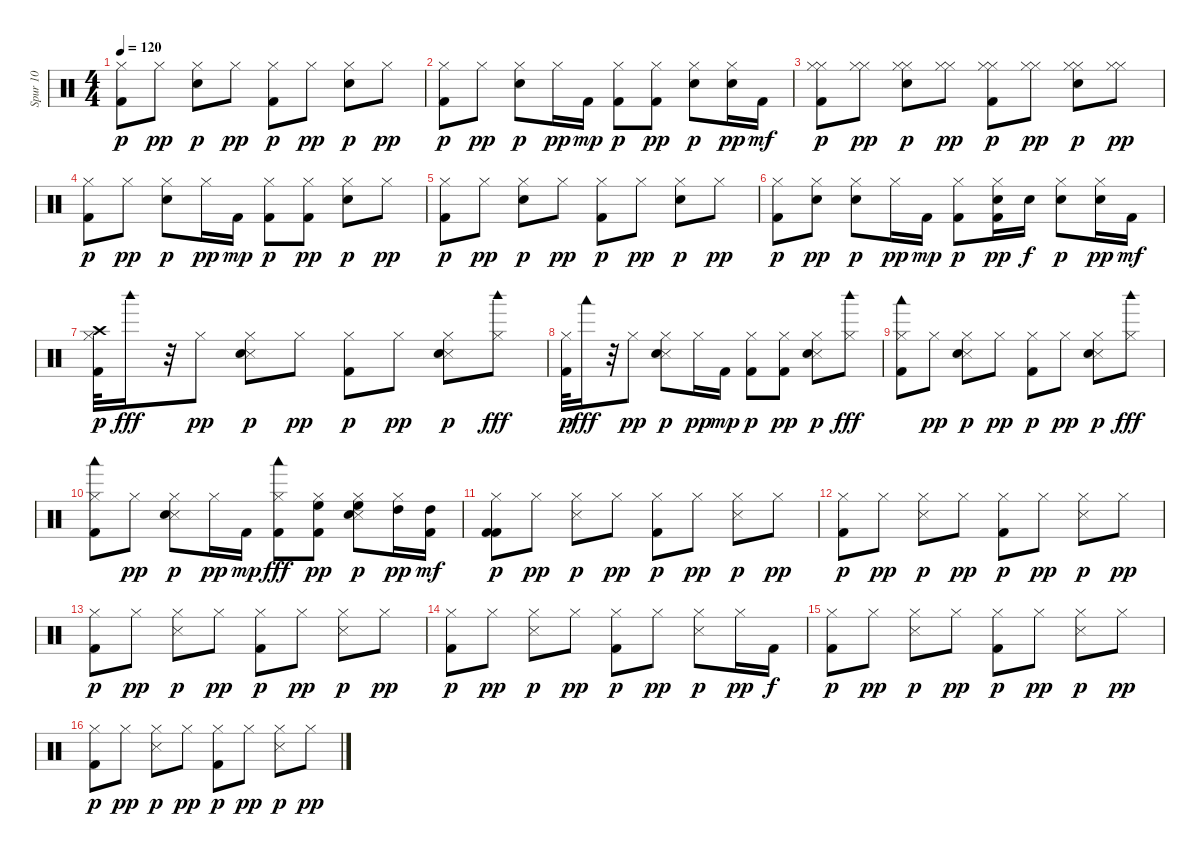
\track ("Spur 10" "Spur 10") {instrument percussion}
\staff {score}
\articulation defaults
\ts (4 4)
\tempo 120
\clef neutral
\ks c
("Kick (hit) 2" "Hi-Hat (closed)").8{dy p} "Hi-Hat (closed)".8{dy pp} ("Snare (hit) 2" "Hi-Hat (closed)").8{dy p} "Hi-Hat (closed)".8{dy pp} ("Kick (hit) 2" "Hi-Hat (closed)").8{dy p} "Hi-Hat (closed)".8{dy pp} ("Snare (hit) 2" "Hi-Hat (closed)").8{dy p} "Hi-Hat (closed)".8{dy pp} |
("Kick (hit) 2" "Hi-Hat (closed)").8{dy p} "Hi-Hat (closed)".8{dy pp} ("Snare (hit) 2" "Hi-Hat (closed)").8{dy p} "Hi-Hat (closed)".16{dy pp} "Kick (hit) 2".16{dy mp} ("Kick (hit) 2" "Hi-Hat (closed)").8{dy p} ("Kick (hit) 2" "Hi-Hat (closed)").8{dy pp} ("Snare (hit) 2" "Hi-Hat (closed)").8{dy p} ("Snare (hit) 2" "Hi-Hat (closed)").16{dy pp} "Kick (hit) 2".16{dy mf} |
("Kick (hit) 2" "Hi-Hat (closed)" "Hi-Hat (closed)").8{dy p} ("Hi-Hat (closed)" "Hi-Hat (closed)").8{dy pp} ("Snare (hit) 2" "Hi-Hat (closed)" "Hi-Hat (closed)").8{dy p} ("Hi-Hat (closed)" "Hi-Hat (closed)").8{dy pp} ("Kick (hit) 2" "Hi-Hat (closed)" "Hi-Hat (closed)").8{dy p} ("Hi-Hat (closed)" "Hi-Hat (closed)").8{dy pp} ("Snare (hit) 2" "Hi-Hat (closed)" "Hi-Hat (closed)").8{dy p} ("Hi-Hat (closed)" "Hi-Hat (closed)").8{dy pp} |
("Kick (hit) 2" "Hi-Hat (closed)").8{dy p} "Hi-Hat (closed)".8{dy pp} ("Snare (hit) 2" "Hi-Hat (closed)").8{dy p} "Hi-Hat (closed)".16{dy pp} "Kick (hit) 2".16{dy mp} ("Kick (hit) 2" "Hi-Hat (closed)").8{dy p} ("Kick (hit) 2" "Hi-Hat (closed)").8{dy pp} ("Snare (hit) 2" "Hi-Hat (closed)").8{dy p} "Hi-Hat (closed)".8{dy pp} |
("Kick (hit) 2" "Hi-Hat (closed)").8{dy p} "Hi-Hat (closed)".8{dy pp} ("Snare (hit) 2" "Hi-Hat (closed)").8{dy p} "Hi-Hat (closed)".8{dy pp} ("Kick (hit) 2" "Hi-Hat (closed)").8{dy p} "Hi-Hat (closed)".8{dy pp} ("Snare (hit) 2" "Hi-Hat (closed)").8{dy p} "Hi-Hat (closed)".8{dy pp} |
("Kick (hit) 2" "Hi-Hat (closed)").8{dy p} ("Snare (hit) 2" "Hi-Hat (closed)").8{dy pp} ("Snare (hit) 2" "Hi-Hat (closed)").8{dy p} "Hi-Hat (closed)".16{dy pp} "Kick (hit) 2".16{dy mp} ("Kick (hit) 2" "Hi-Hat (closed)").8{dy p} ("Kick (hit) 2" "Snare (hit) 2" "Hi-Hat (closed)").16{dy pp} "Snare (hit) 2".16{dy f} ("Snare (hit) 2" "Hi-Hat (closed)").8{dy p} ("Snare (hit) 2" "Hi-Hat (closed)").16{dy pp} "Kick (hit) 2".16{dy mf} |
("Kick (hit) 2" "Hi-Hat (closed)" "Crash high (hit)").32{dy p} "Woodblock high (hit)".16{dy fff} r.32 "Hi-Hat (closed)".8{dy pp} ("Snare (side stick) 3" "Snare (hit) 2" "Hi-Hat (closed)").8{dy p} "Hi-Hat (closed)".8{dy pp} ("Kick (hit) 2" "Hi-Hat (closed)").8{dy p} "Hi-Hat (closed)".8{dy pp} ("Snare (side stick) 3" "Snare (hit) 2" "Hi-Hat (closed)").8{dy p} ("Hi-Hat (closed)" "Woodblock high (hit)").8{dy fff} |
("Kick (hit) 2" "Hi-Hat (closed)").32{dy p} "Woodblock low (hit)".16{dy fff} r.32 "Hi-Hat (closed)".8{dy pp} ("Snare (side stick) 3" "Snare (hit) 2" "Hi-Hat (closed)").8{dy p} "Hi-Hat (closed)".16{dy pp} "Kick (hit) 2".16{dy mp} ("Kick (hit) 2" "Hi-Hat (closed)").8{dy p} ("Kick (hit) 2" "Hi-Hat (closed)").8{dy pp} ("Snare (side stick) 3" "Snare (hit) 2" "Hi-Hat (closed)").8{dy p} ("Hi-Hat (closed)" "Woodblock high (hit)").8{dy fff} |
("Kick (hit) 2" "Hi-Hat (closed)" "Woodblock low (hit)").8 "Hi-Hat (closed)".8{dy pp} ("Snare (side stick) 3" "Snare (hit) 2" "Hi-Hat (closed)").8{dy p} "Hi-Hat (closed)".8{dy pp} ("Kick (hit) 2" "Hi-Hat (closed)").8{dy p} "Hi-Hat (closed)".8{dy pp} ("Snare (side stick) 3" "Snare (hit) 2" "Hi-Hat (closed)").8{dy p} ("Hi-Hat (closed)" "Woodblock high (hit)").8{dy fff} |
("Kick (hit) 2" "Hi-Hat (closed)" "Woodblock low (hit)").8 "Hi-Hat (closed)".8{dy pp} ("Snare (side stick) 3" "Snare (hit) 2" "Hi-Hat (closed)").8{dy p} "Hi-Hat (closed)".16{dy pp} "Kick (hit) 2".16{dy mp} ("Kick (hit) 2" "Hi-Hat (closed)" "Woodblock low (hit)").8{dy fff} ("Kick (hit) 2" "Hi-Hat (closed)" "High Floor Tom (hit)").8{dy pp} ("Snare (side stick) 3" "Snare (hit) 2" "Hi-Hat (closed)" "High Floor Tom (hit)").8{dy p} ("Hi-Hat (closed)" "High Tom (hit)").16{dy pp} ("Kick (hit) 2" "High Tom (hit)").16{dy mf} |
("Kick (hit) 2" "Kick (hit) 2" "Hi-Hat (closed)").8{dy p} "Hi-Hat (closed)".8{dy pp} ("Snare (side stick) 3" "Hi-Hat (closed)").8{dy p} "Hi-Hat (closed)".8{dy pp} ("Kick (hit) 2" "Hi-Hat (closed)").8{dy p} "Hi-Hat (closed)".8{dy pp} ("Snare (side stick) 3" "Hi-Hat (closed)").8{dy p} "Hi-Hat (closed)".8{dy pp} |
("Kick (hit) 2" "Hi-Hat (closed)").8{dy p} "Hi-Hat (closed)".8{dy pp} ("Snare (side stick) 3" "Hi-Hat (closed)").8{dy p} "Hi-Hat (closed)".8{dy pp} ("Kick (hit) 2" "Hi-Hat (closed)").8{dy p} "Hi-Hat (closed)".8{dy pp} ("Snare (side stick) 3" "Hi-Hat (closed)").8{dy p} "Hi-Hat (closed)".8{dy pp} |
("Kick (hit) 2" "Hi-Hat (closed)").8{dy p} "Hi-Hat (closed)".8{dy pp} ("Snare (side stick) 3" "Hi-Hat (closed)").8{dy p} "Hi-Hat (closed)".8{dy pp} ("Kick (hit) 2" "Hi-Hat (closed)").8{dy p} "Hi-Hat (closed)".8{dy pp} ("Snare (side stick) 3" "Hi-Hat (closed)").8{dy p} "Hi-Hat (closed)".8{dy pp} |
("Kick (hit) 2" "Hi-Hat (closed)").8{dy p} "Hi-Hat (closed)".8{dy pp} ("Snare (side stick) 3" "Hi-Hat (closed)").8{dy p} "Hi-Hat (closed)".8{dy pp} ("Kick (hit) 2" "Hi-Hat (closed)").8{dy p} "Hi-Hat (closed)".8{dy pp} ("Snare (side stick) 3" "Hi-Hat (closed)").8{dy p} "Hi-Hat (closed)".16{dy pp} "Kick (hit) 2".16{dy f} |
("Kick (hit) 2" "Hi-Hat (closed)").8{dy p} "Hi-Hat (closed)".8{dy pp} ("Snare (side stick) 3" "Hi-Hat (closed)").8{dy p} "Hi-Hat (closed)".8{dy pp} ("Kick (hit) 2" "Hi-Hat (closed)").8{dy p} "Hi-Hat (closed)".8{dy pp} ("Snare (side stick) 3" "Hi-Hat (closed)").8{dy p} "Hi-Hat (closed)".8{dy pp} |
("Kick (hit) 2" "Hi-Hat (closed)").8{dy p} "Hi-Hat (closed)".8{dy pp} ("Snare (side stick) 3" "Hi-Hat (closed)").8{dy p} "Hi-Hat (closed)".8{dy pp} ("Kick (hit) 2" "Hi-Hat (closed)").8{dy p} "Hi-Hat (closed)".8{dy pp} ("Snare (side stick) 3" "Hi-Hat (closed)").8{dy p} "Hi-Hat (closed)".8{dy pp}
